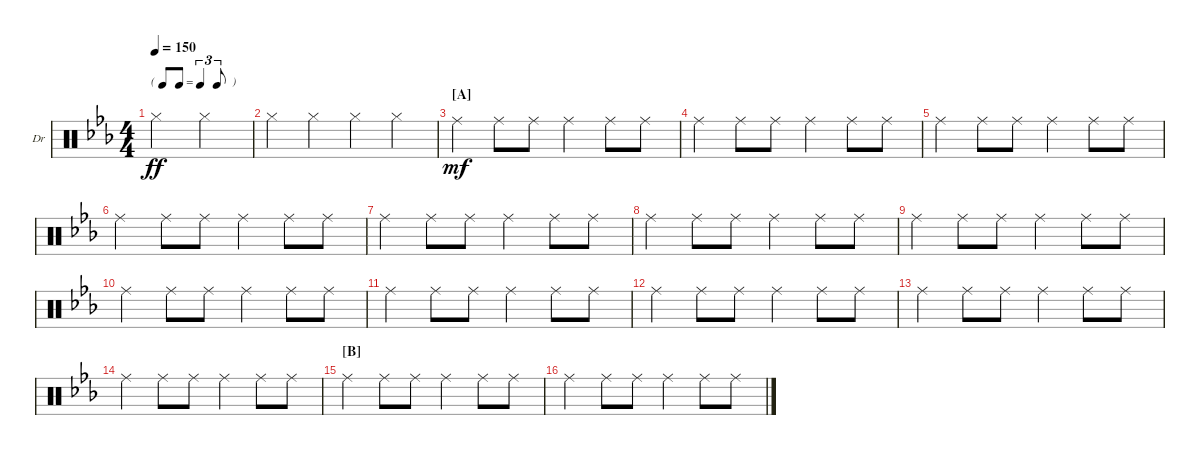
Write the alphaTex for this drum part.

\defaultSystemsLayout 4
\bracketExtendMode nobrackets
\firstSystemTrackNameOrientation horizontal
\otherSystemsTrackNameOrientation horizontal
\chordDiagramsInScore
\track ("Drums" "Dr") {instrument percussion}
\staff {score}
\articulation defaults
\ts (4 4)
\tf triplet8th
\tempo 150
\clef neutral
\ks cminor "Hi-Hat (closed)".2{dy ff} "Hi-Hat (closed)".2
|
\scale
0.448889 "Hi-Hat (closed)".4 "Hi-Hat (closed)".4 "Hi-Hat (closed)".4 "Hi-Hat (closed)".4 |
\section ("A" "")
\scale
0.302222 "Ride (middle)".4{dy mf} "Ride (middle)".8 "Ride (middle)".8 "Ride (middle)".4 "Ride (middle)".8 "Ride (middle)".8 |
\scale
0.248889 "Ride (middle)".4 "Ride (middle)".8 "Ride (middle)".8 "Ride (middle)".4 "Ride (middle)".8 "Ride (middle)".8 |
\scale
0.333333 "Ride (middle)".4 "Ride (middle)".8 "Ride (middle)".8 "Ride (middle)".4 "Ride (middle)".8 "Ride (middle)".8 |
\scale
0.333333 "Ride (middle)".4 "Ride (middle)".8 "Ride (middle)".8 "Ride (middle)".4 "Ride (middle)".8 "Ride (middle)".8 |
\scale
0.333333 "Ride (middle)".4 "Ride (middle)".8 "Ride (middle)".8 "Ride (middle)".4 "Ride (middle)".8 "Ride (middle)".8 |
\scale
0.333333 "Ride (middle)".4 "Ride (middle)".8 "Ride (middle)".8 "Ride (middle)".4 "Ride (middle)".8 "Ride (middle)".8 |
\scale
0.333333 "Ride (middle)".4 "Ride (middle)".8 "Ride (middle)".8 "Ride (middle)".4 "Ride (middle)".8 "Ride (middle)".8 |
"Ride (middle)".4 "Ride (middle)".8 "Ride (middle)".8 "Ride (middle)".4 "Ride (middle)".8 "Ride (middle)".8 |
"Ride (middle)".4 "Ride (middle)".8 "Ride (middle)".8 "Ride (middle)".4 "Ride (middle)".8 "Ride (middle)".8 |
"Ride (middle)".4 "Ride (middle)".8 "Ride (middle)".8 "Ride (middle)".4 "Ride (middle)".8 "Ride (middle)".8 |
"Ride (middle)".4 "Ride (middle)".8 "Ride (middle)".8 "Ride (middle)".4 "Ride (middle)".8 "Ride (middle)".8 |
"Ride (middle)".4 "Ride (middle)".8 "Ride (middle)".8 "Ride (middle)".4 "Ride (middle)".8 "Ride (middle)".8 |
\section ("B" "")
"Ride (middle)".4 "Ride (middle)".8 "Ride (middle)".8 "Ride (middle)".4 "Ride (middle)".8 "Ride (middle)".8 |
"Ride (middle)".4 "Ride (middle)".8 "Ride (middle)".8 "Ride (middle)".4 "Ride (middle)".8 "Ride (middle)".8
